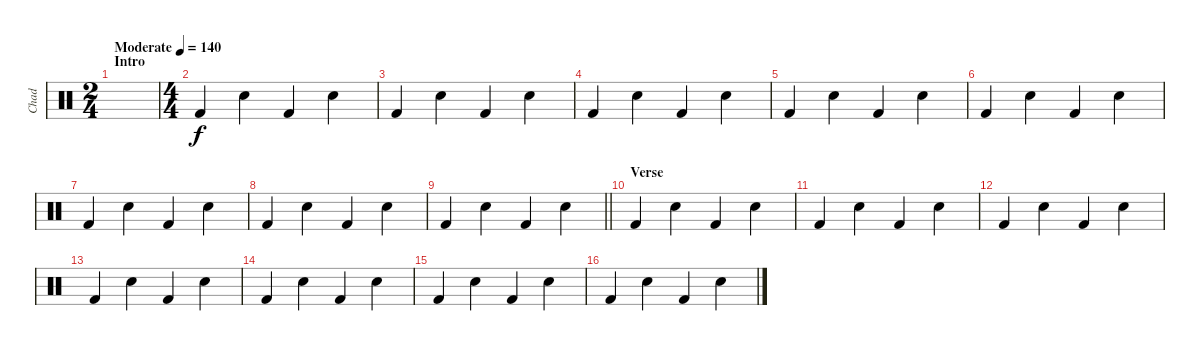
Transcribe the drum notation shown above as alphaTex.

\track ("Chad" "Chad") {instrument percussion}
\staff {score}
\articulation defaults
\ts (2 4)
\section ("" "Intro")
\tempo (140 "Moderate")
\clef neutral
\ks c
|
\ts (4 4)
"Kick (hit) 2".4 "Electric Snare (hit)".4 "Kick (hit) 2".4 "Electric Snare (hit)".4 |
"Kick (hit) 2".4 "Electric Snare (hit)".4 "Kick (hit) 2".4 "Electric Snare (hit)".4 |
"Kick (hit) 2".4 "Electric Snare (hit)".4 "Kick (hit) 2".4 "Electric Snare (hit)".4 |
"Kick (hit) 2".4 "Electric Snare (hit)".4 "Kick (hit) 2".4 "Electric Snare (hit)".4 |
"Kick (hit) 2".4 "Electric Snare (hit)".4 "Kick (hit) 2".4 "Electric Snare (hit)".4 |
"Kick (hit) 2".4 "Electric Snare (hit)".4 "Kick (hit) 2".4 "Electric Snare (hit)".4 |
"Kick (hit) 2".4 "Electric Snare (hit)".4 "Kick (hit) 2".4 "Electric Snare (hit)".4 |
\barLineRight lightlight "Kick (hit) 2".4 "Electric Snare (hit)".4 "Kick (hit) 2".4 "Electric Snare (hit)".4
|
\section ("" "Verse")
"Kick (hit) 2".4 "Electric Snare (hit)".4 "Kick (hit) 2".4 "Electric Snare (hit)".4 |
"Kick (hit) 2".4 "Electric Snare (hit)".4 "Kick (hit) 2".4 "Electric Snare (hit)".4 |
"Kick (hit) 2".4 "Electric Snare (hit)".4 "Kick (hit) 2".4 "Electric Snare (hit)".4 |
"Kick (hit) 2".4 "Electric Snare (hit)".4 "Kick (hit) 2".4 "Electric Snare (hit)".4 |
"Kick (hit) 2".4 "Electric Snare (hit)".4 "Kick (hit) 2".4 "Electric Snare (hit)".4 |
"Kick (hit) 2".4 "Electric Snare (hit)".4 "Kick (hit) 2".4 "Electric Snare (hit)".4 |
"Kick (hit) 2".4 "Electric Snare (hit)".4 "Kick (hit) 2".4 "Electric Snare (hit)".4
